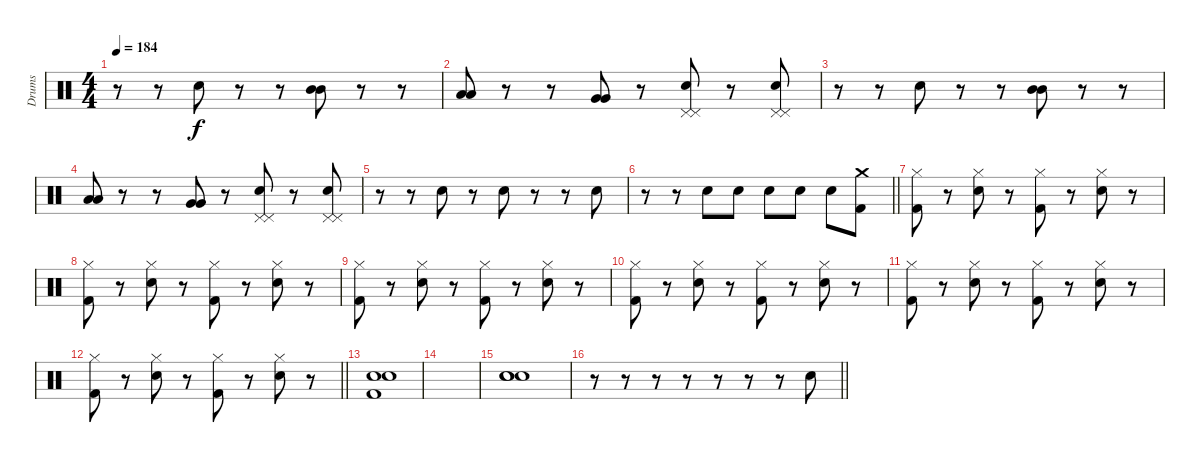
\track ("Drums" "Drums") {instrument percussion}
\staff {score}
\articulation defaults
\ts (4 4)
\tempo 184
\clef neutral
\ks c
r.8{dy f} r.8 "Snare (hit) 2".8 r.8 r.8 ("Mid Tom (hit)" "Mid Tom (hit)").8 r.8 r.8 |
("Low Tom (hit)" "Low Tom (hit)").8 r.8 r.8 ("Very Low Tom (hit)" "Very Low Tom (hit)").8 r.8 ("Pedal Hi-Hat (hit)" "Pedal Hi-Hat (hit)" "Snare (hit) 2").8 r.8 ("Pedal Hi-Hat (hit)" "Pedal Hi-Hat (hit)" "Snare (hit) 2").8 |
r.8 r.8 "Snare (hit) 2".8 r.8 r.8 ("Mid Tom (hit)" "Mid Tom (hit)").8 r.8 r.8 |
("Low Tom (hit)" "Low Tom (hit)").8 r.8 r.8 ("Very Low Tom (hit)" "Very Low Tom (hit)").8 r.8 ("Pedal Hi-Hat (hit)" "Pedal Hi-Hat (hit)" "Snare (hit) 2").8 r.8 ("Pedal Hi-Hat (hit)" "Pedal Hi-Hat (hit)" "Snare (hit) 2").8 |
r.8 r.8 "Snare (hit) 2".8 r.8 "Snare (hit) 2".8 r.8 r.8 "Snare (hit) 2".8 |
\barLineRight lightlight
r.8 r.8 "Snare (hit) 2".8 "Snare (hit) 2".8 "Snare (hit) 2".8 "Snare (hit) 2".8 "Snare (hit) 2".8 ("Crash medium (hit)" "Kick (hit) 2").8 |
("Hi-Hat (closed)" "Kick (hit) 2").8 r.8 ("Hi-Hat (closed)" "Snare (hit) 2").8 r.8 ("Hi-Hat (closed)" "Kick (hit) 2").8 r.8 ("Hi-Hat (closed)" "Snare (hit) 2").8 r.8 |
("Hi-Hat (closed)" "Kick (hit) 2").8 r.8 ("Hi-Hat (closed)" "Snare (hit) 2").8 r.8 ("Hi-Hat (closed)" "Kick (hit) 2").8 r.8 ("Hi-Hat (closed)" "Snare (hit) 2").8 r.8 |
("Hi-Hat (closed)" "Kick (hit) 2").8 r.8 ("Hi-Hat (closed)" "Snare (hit) 2").8 r.8 ("Hi-Hat (closed)" "Kick (hit) 2").8 r.8 ("Hi-Hat (closed)" "Snare (hit) 2").8 r.8 |
("Hi-Hat (closed)" "Kick (hit) 2").8 r.8 ("Hi-Hat (closed)" "Snare (hit) 2").8 r.8 ("Hi-Hat (closed)" "Kick (hit) 2").8 r.8 ("Hi-Hat (closed)" "Snare (hit) 2").8 r.8 |
("Hi-Hat (closed)" "Kick (hit) 2").8 r.8 ("Hi-Hat (closed)" "Snare (hit) 2").8 r.8 ("Hi-Hat (closed)" "Kick (hit) 2").8 r.8 ("Hi-Hat (closed)" "Snare (hit) 2").8 r.8 |
\barLineRight lightlight
("Hi-Hat (closed)" "Kick (hit) 2").8 r.8 ("Hi-Hat (closed)" "Snare (hit) 2").8 r.8 ("Hi-Hat (closed)" "Kick (hit) 2").8 r.8 ("Hi-Hat (closed)" "Snare (hit) 2").8 r.8 |
("Snare (hit) 2" "Snare (hit) 2" "Kick (hit) 2").1 |
|
("Snare (hit) 2" "Snare (hit) 2" "Snare (hit) 2").1 |
\barLineRight lightlight
r.8 r.8 r.8 r.8 r.8 r.8 r.8 "Snare (hit) 2".8
